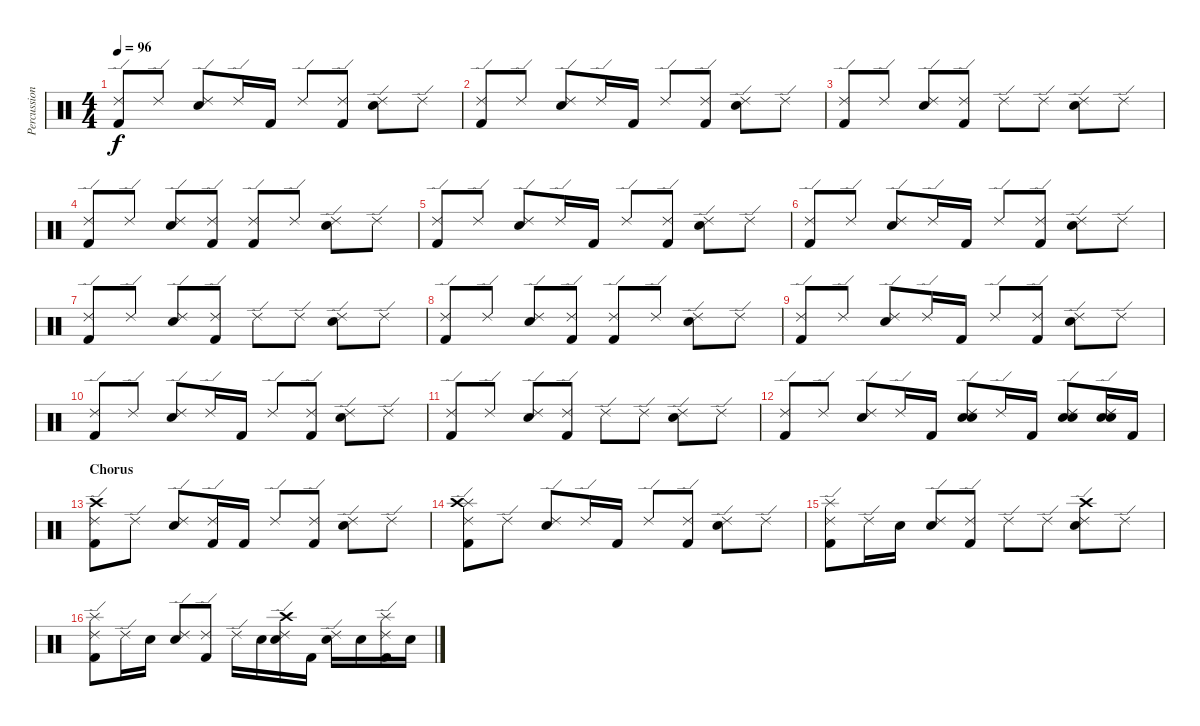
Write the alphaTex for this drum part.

\track ("Percussion" "Percussion") {instrument percussion}
\staff {score}
\articulation defaults
\ts (4 4)
\tempo 96
\clef neutral
\ks c
("Ride (edge) 2" "Kick (hit) 2").8{dy f} "Ride (edge) 2".8 ("Ride (edge) 2" "Electric Snare (hit)").8 "Ride (edge) 2".16 "Kick (hit) 2".16 "Ride (edge) 2".8 ("Ride (edge) 2" "Kick (hit) 2").8 ("Ride (edge) 2" "Electric Snare (hit)").8 "Ride (edge) 2".8 |
("Ride (edge) 2" "Kick (hit) 2").8 "Ride (edge) 2".8 ("Ride (edge) 2" "Electric Snare (hit)").8 "Ride (edge) 2".16 "Kick (hit) 2".16 "Ride (edge) 2".8 ("Ride (edge) 2" "Kick (hit) 2").8 ("Ride (edge) 2" "Electric Snare (hit)").8 "Ride (edge) 2".8 |
("Ride (edge) 2" "Kick (hit) 2").8 "Ride (edge) 2".8 ("Ride (edge) 2" "Electric Snare (hit)").8 ("Ride (edge) 2" "Kick (hit) 2").8 "Ride (edge) 2".8 "Ride (edge) 2".8 ("Ride (edge) 2" "Electric Snare (hit)").8 "Ride (edge) 2".8 |
("Ride (edge) 2" "Kick (hit) 2").8 "Ride (edge) 2".8 ("Ride (edge) 2" "Electric Snare (hit)").8 ("Ride (edge) 2" "Kick (hit) 2").8 ("Ride (edge) 2" "Kick (hit) 2").8 "Ride (edge) 2".8 ("Ride (edge) 2" "Electric Snare (hit)").8 "Ride (edge) 2".8 |
("Ride (edge) 2" "Kick (hit) 2").8 "Ride (edge) 2".8 ("Ride (edge) 2" "Electric Snare (hit)").8 "Ride (edge) 2".16 "Kick (hit) 2".16 "Ride (edge) 2".8 ("Ride (edge) 2" "Kick (hit) 2").8 ("Ride (edge) 2" "Electric Snare (hit)").8 "Ride (edge) 2".8 |
("Ride (edge) 2" "Kick (hit) 2").8 "Ride (edge) 2".8 ("Ride (edge) 2" "Electric Snare (hit)").8 "Ride (edge) 2".16 "Kick (hit) 2".16 "Ride (edge) 2".8 ("Ride (edge) 2" "Kick (hit) 2").8 ("Ride (edge) 2" "Electric Snare (hit)").8 "Ride (edge) 2".8 |
("Ride (edge) 2" "Kick (hit) 2").8 "Ride (edge) 2".8 ("Ride (edge) 2" "Electric Snare (hit)").8 ("Ride (edge) 2" "Kick (hit) 2").8 "Ride (edge) 2".8 "Ride (edge) 2".8 ("Ride (edge) 2" "Electric Snare (hit)").8 "Ride (edge) 2".8 |
("Ride (edge) 2" "Kick (hit) 2").8 "Ride (edge) 2".8 ("Ride (edge) 2" "Electric Snare (hit)").8 ("Ride (edge) 2" "Kick (hit) 2").8 ("Ride (edge) 2" "Kick (hit) 2").8 "Ride (edge) 2".8 ("Ride (edge) 2" "Electric Snare (hit)").8 "Ride (edge) 2".8 |
("Ride (edge) 2" "Kick (hit) 2").8 "Ride (edge) 2".8 ("Ride (edge) 2" "Electric Snare (hit)").8 "Ride (edge) 2".16 "Kick (hit) 2".16 "Ride (edge) 2".8 ("Ride (edge) 2" "Kick (hit) 2").8 ("Ride (edge) 2" "Electric Snare (hit)").8 "Ride (edge) 2".8 |
("Ride (edge) 2" "Kick (hit) 2").8 "Ride (edge) 2".8 ("Ride (edge) 2" "Electric Snare (hit)").8 "Ride (edge) 2".16 "Kick (hit) 2".16 "Ride (edge) 2".8 ("Ride (edge) 2" "Kick (hit) 2").8 ("Ride (edge) 2" "Electric Snare (hit)").8 "Ride (edge) 2".8 |
("Ride (edge) 2" "Kick (hit) 2").8 "Ride (edge) 2".8 ("Ride (edge) 2" "Electric Snare (hit)").8 ("Ride (edge) 2" "Kick (hit) 2").8 "Ride (edge) 2".8 "Ride (edge) 2".8 ("Ride (edge) 2" "Electric Snare (hit)").8 "Ride (edge) 2".8 |
("Ride (edge) 2" "Kick (hit) 2").8 "Ride (edge) 2".8 ("Ride (edge) 2" "Electric Snare (hit)").8 "Ride (edge) 2".16 "Kick (hit) 2".16 ("Ride (edge) 2" "Electric Snare (hit)" "Snare (hit) 2").8 "Ride (edge) 2".16 "Kick (hit) 2".16 ("Ride (edge) 2" "Electric Snare (hit)" "Snare (hit) 2").8 ("Ride (edge) 2" "Electric Snare (hit)" "Snare (hit) 2").16 "Kick (hit) 2".16 |
\section ("" "Chorus")
("Ride (edge) 2" "Crash high (hit)" "Kick (hit) 2").8 "Ride (edge) 2".8 ("Ride (edge) 2" "Electric Snare (hit)").8 ("Ride (edge) 2" "Kick (hit) 2").16 "Kick (hit) 2".16 "Ride (edge) 2".8 ("Ride (edge) 2" "Kick (hit) 2").8 ("Ride (edge) 2" "Electric Snare (hit)").8 "Ride (edge) 2".8 |
("Ride (edge) 2" "Splash (hit)" "Crash high (hit)" "Kick (hit) 2").8 "Ride (edge) 2".8 ("Ride (edge) 2" "Electric Snare (hit)").8 "Ride (edge) 2".16 "Kick (hit) 2".16 "Ride (edge) 2".8 ("Ride (edge) 2" "Kick (hit) 2").8 ("Ride (edge) 2" "Electric Snare (hit)").8 "Ride (edge) 2".8 |
("Ride (edge) 2" "Splash (hit)" "Kick (hit) 2").8 "Ride (edge) 2".16 "Electric Snare (hit)".16 ("Ride (edge) 2" "Electric Snare (hit)").8 ("Ride (edge) 2" "Kick (hit) 2").8 "Ride (edge) 2".8 "Ride (edge) 2".8 ("Ride (edge) 2" "Crash high (hit)" "Electric Snare (hit)").8 "Ride (edge) 2".8 |
("Ride (edge) 2" "Splash (hit)" "Kick (hit) 2").8 "Ride (edge) 2".16 "Electric Snare (hit)".16 ("Ride (edge) 2" "Electric Snare (hit)").8 ("Ride (edge) 2" "Kick (hit) 2").8 "Ride (edge) 2".16 "Electric Snare (hit)".16 ("Ride (edge) 2" "Crash high (hit)" "Electric Snare (hit)").16 "Kick (hit) 2".16 ("Ride (edge) 2" "Electric Snare (hit)").16 "Electric Snare (hit)".16 ("Ride (edge) 2" "Splash (hit)" "Kick (hit) 2").16 "Electric Snare (hit)".16
